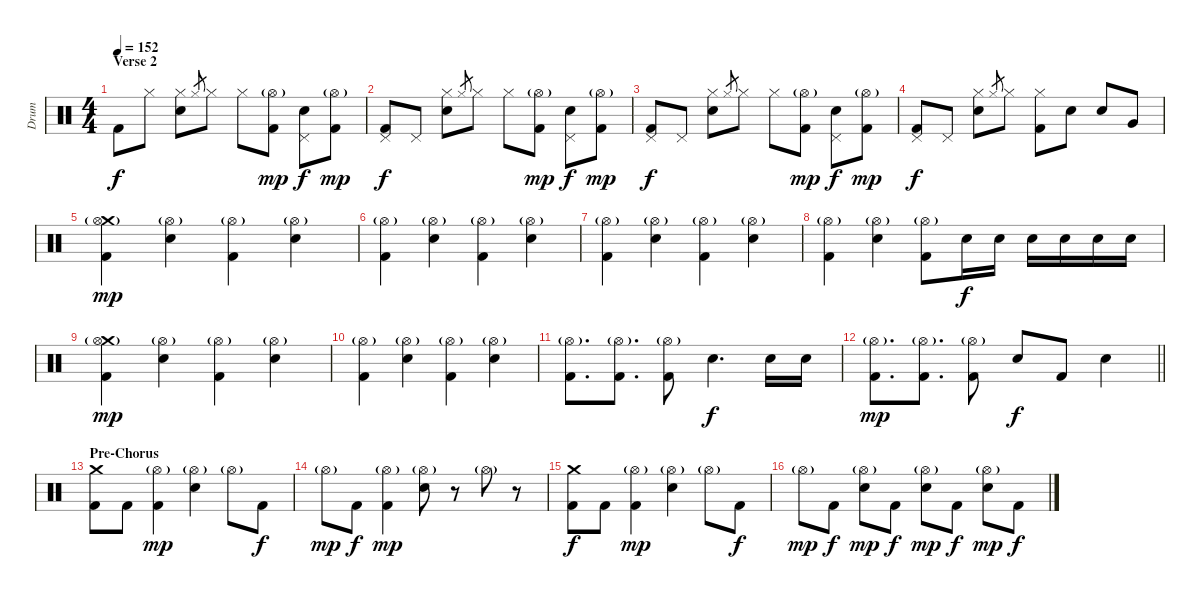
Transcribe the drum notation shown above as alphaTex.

\track ("Drum" "Drum") {instrument percussion}
\staff {score}
\articulation defaults
\ts (4 4)
\section ("" "Verse 2")
\tempo 152
\clef neutral
\ks c "Kick (hit) 2".8{dy f} "Hi-Hat (closed)".8
("Hi-Hat (closed)" "Electric Snare (hit)").8 "Hi-Hat (closed)".8{gr} "Hi-Hat (closed)".8 "Hi-Hat (closed)".8 ("Hi-Hat (open)"{g} "Kick (hit) 2").8{dy mp} ("Pedal Hi-Hat (hit)" "Electric Snare (hit)").8{dy f} ("Hi-Hat (open)"{g} "Kick (hit) 2").8{dy mp} |
("Pedal Hi-Hat (hit)" "Kick (hit) 2").8{dy f} "Pedal Hi-Hat (hit)".8 ("Hi-Hat (closed)" "Electric Snare (hit)").8 "Hi-Hat (closed)".8{gr} "Hi-Hat (closed)".8 "Hi-Hat (closed)".8 ("Hi-Hat (open)"{g} "Kick (hit) 2").8{dy mp} ("Pedal Hi-Hat (hit)" "Electric Snare (hit)").8{dy f} ("Hi-Hat (open)"{g} "Kick (hit) 2").8{dy mp} |
("Pedal Hi-Hat (hit)" "Kick (hit) 2").8{dy f} "Pedal Hi-Hat (hit)".8 ("Hi-Hat (closed)" "Electric Snare (hit)").8 "Hi-Hat (closed)".8{gr} "Hi-Hat (closed)".8 "Hi-Hat (closed)".8 ("Hi-Hat (open)"{g} "Kick (hit) 2").8{dy mp} ("Pedal Hi-Hat (hit)" "Electric Snare (hit)").8{dy f} ("Hi-Hat (open)"{g} "Kick (hit) 2").8{dy mp} |
("Pedal Hi-Hat (hit)" "Kick (hit) 2").8{dy f} "Pedal Hi-Hat (hit)".8 ("Hi-Hat (closed)" "Electric Snare (hit)").8 "Hi-Hat (closed)".8{gr} "Hi-Hat (closed)".8 ("Hi-Hat (closed)" "Kick (hit) 2").8 "Electric Snare (hit)".8 "Electric Snare (hit)".8 "Very Low Tom (hit)".8 |
("Crash medium (hit)" "Hi-Hat (open)"{g} "Kick (hit) 2").4{dy mp} ("Hi-Hat (open)"{g} "Electric Snare (hit)").4 ("Hi-Hat (open)"{g} "Kick (hit) 2").4 ("Hi-Hat (open)"{g} "Electric Snare (hit)").4 |
("Hi-Hat (open)"{g} "Kick (hit) 2").4 ("Hi-Hat (open)"{g} "Electric Snare (hit)").4 ("Hi-Hat (open)"{g} "Kick (hit) 2").4 ("Hi-Hat (open)"{g} "Electric Snare (hit)").4 |
("Hi-Hat (open)"{g} "Kick (hit) 2").4 ("Hi-Hat (open)"{g} "Electric Snare (hit)").4 ("Hi-Hat (open)"{g} "Kick (hit) 2").4 ("Hi-Hat (open)"{g} "Electric Snare (hit)").4 |
("Hi-Hat (open)"{g} "Kick (hit) 2").4 ("Hi-Hat (open)"{g} "Electric Snare (hit)").4 ("Hi-Hat (open)"{g} "Kick (hit) 2").8 "Electric Snare (hit)".16{dy f} "Electric Snare (hit)".16 "Electric Snare (hit)".16 "Electric Snare (hit)".16 "Electric Snare (hit)".16 "Electric Snare (hit)".16 |
("Crash medium (hit)" "Hi-Hat (open)"{g} "Kick (hit) 2").4{dy mp} ("Hi-Hat (open)"{g} "Electric Snare (hit)").4 ("Hi-Hat (open)"{g} "Kick (hit) 2").4 ("Hi-Hat (open)"{g} "Electric Snare (hit)").4 |
("Hi-Hat (open)"{g} "Kick (hit) 2").4 ("Hi-Hat (open)"{g} "Electric Snare (hit)").4 ("Hi-Hat (open)"{g} "Kick (hit) 2").4 ("Hi-Hat (open)"{g} "Electric Snare (hit)").4 |
("Hi-Hat (open)"{g} "Kick (hit) 2").8{d} ("Hi-Hat (open)"{g} "Kick (hit) 2").8{d} ("Hi-Hat (open)"{g} "Kick (hit) 2").8 "Electric Snare (hit)".4{d dy f} "Electric Snare (hit)".16 "Electric Snare (hit)".16 |
\barLineRight lightlight
("Hi-Hat (open)"{g} "Kick (hit) 2").8{d dy mp} ("Hi-Hat (open)"{g} "Kick (hit) 2").8{d} ("Hi-Hat (open)"{g} "Kick (hit) 2").8 "Electric Snare (hit)".8{dy f} "Kick (hit) 2".8 "Electric Snare (hit)".4 |
\section ("" "Pre-Chorus")
("Crash medium (hit)" "Kick (hit) 2").8 "Kick (hit) 2".8 ("Hi-Hat (open)"{g} "Kick (hit) 2").4{dy mp} ("Hi-Hat (open)"{g} "Electric Snare (hit)").4 "Hi-Hat (open)"{g}.8 "Kick (hit) 2".8{dy f} |
"Hi-Hat (open)"{g}.8{dy mp} "Kick (hit) 2".8{dy f} ("Hi-Hat (open)"{g} "Kick (hit) 2").4{dy mp} ("Hi-Hat (open)"{g} "Electric Snare (hit)").8 r.8 "Hi-Hat (open)"{g}.8 r.8 |
("Crash medium (hit)" "Kick (hit) 2").8{dy f} "Kick (hit) 2".8 ("Hi-Hat (open)"{g} "Kick (hit) 2").4{dy mp} ("Hi-Hat (open)"{g} "Electric Snare (hit)").4 "Hi-Hat (open)"{g}.8 "Kick (hit) 2".8{dy f} |
"Hi-Hat (open)"{g}.8{dy mp} "Kick (hit) 2".8{dy f} ("Hi-Hat (open)"{g} "Electric Snare (hit)").8{dy mp} "Kick (hit) 2".8{dy f} ("Hi-Hat (open)"{g} "Electric Snare (hit)").8{dy mp} "Kick (hit) 2".8{dy f} ("Hi-Hat (open)"{g} "Electric Snare (hit)").8{dy mp} "Kick (hit) 2".8{dy f}
